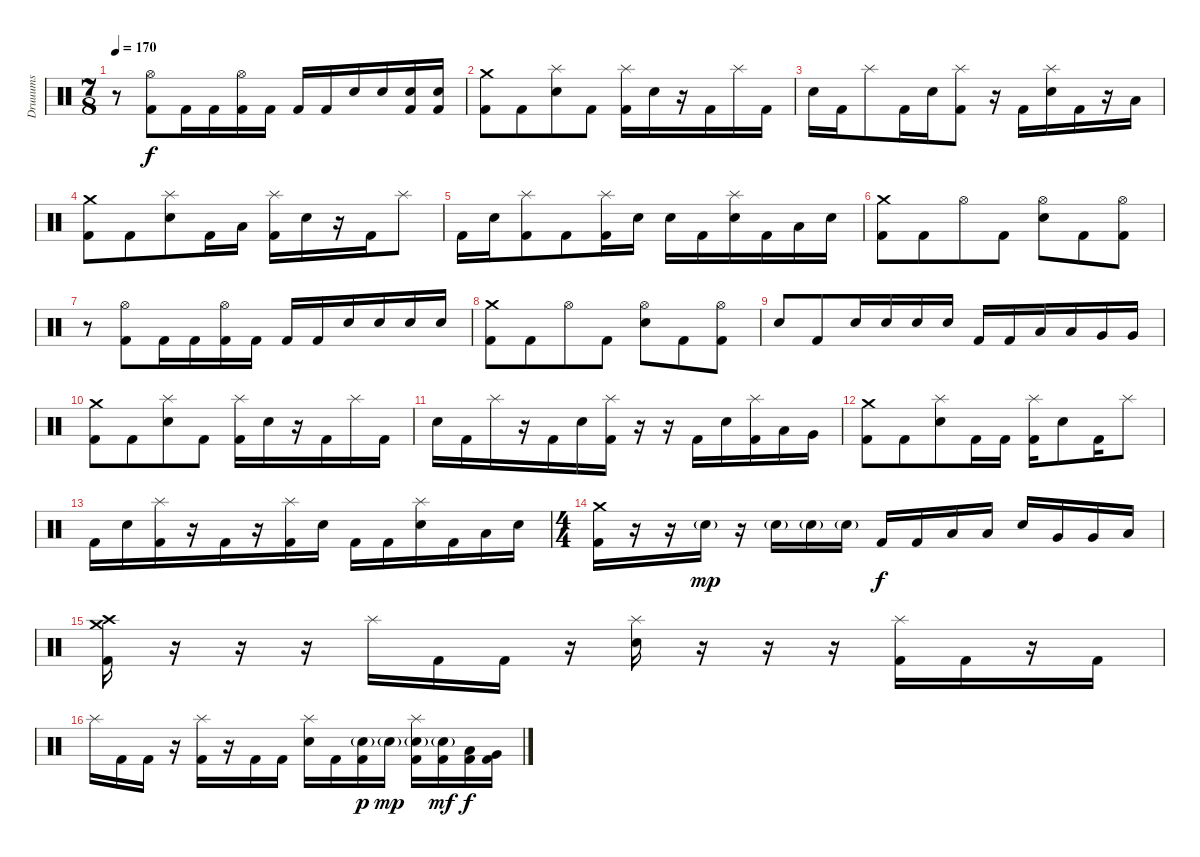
\track ("Druuums" "Druuums") {instrument percussion}
\staff {score}
\articulation defaults
\ts (7 8)
\tempo 170
\clef neutral
\ks c
r.8{dy f} ("Hi-Hat (open)" "Kick (hit) 2").8 "Kick (hit) 2".16 "Kick (hit) 2".16 ("Hi-Hat (open)" "Kick (hit) 2").16 "Kick (hit) 2".16 "Kick (hit) 2".16 "Kick (hit) 2".16 "Electric Snare (hit)".16 "Electric Snare (hit)".16 ("Electric Snare (hit)" "Kick (hit) 2").16 ("Electric Snare (hit)" "Kick (hit) 2").16 |
("Crash medium (hit)" "Kick (hit) 2").8 "Kick (hit) 2".8 ("Splash (hit)" "Electric Snare (hit)").8 "Kick (hit) 2".8 ("Splash (hit)" "Kick (hit) 2").16 "Electric Snare (hit)".16 r.16 "Kick (hit) 2".16 "Splash (hit)".16 "Kick (hit) 2".16 |
"Electric Snare (hit)".16 "Kick (hit) 2".16 "Splash (hit)".8 "Kick (hit) 2".16 "Electric Snare (hit)".16 ("Splash (hit)" "Kick (hit) 2").8 r.16 "Kick (hit) 2".16 ("Splash (hit)" "Electric Snare (hit)").16 "Kick (hit) 2".16 r.16 "Low Tom (hit)".16 |
("Crash medium (hit)" "Kick (hit) 2").8 "Kick (hit) 2".8 ("Splash (hit)" "Electric Snare (hit)").8 "Kick (hit) 2".16 "Low Tom (hit)".16 ("Splash (hit)" "Kick (hit) 2").16 "Electric Snare (hit)".16 r.16 "Kick (hit) 2".16 "Splash (hit)".8 |
"Kick (hit) 2".16 "Electric Snare (hit)".16 ("Splash (hit)" "Kick (hit) 2").8 "Kick (hit) 2".8 ("Splash (hit)" "Kick (hit) 2").16 "Electric Snare (hit)".16 "Electric Snare (hit)".16 "Kick (hit) 2".16 ("Splash (hit)" "Electric Snare (hit)").16 "Kick (hit) 2".16 "Low Tom (hit)".16 "Electric Snare (hit)".16 |
("Crash medium (hit)" "Kick (hit) 2").8 "Kick (hit) 2".8 "Hi-Hat (open)".8 "Kick (hit) 2".8 ("Hi-Hat (open)" "Electric Snare (hit)").8 "Kick (hit) 2".8 ("Hi-Hat (open)" "Kick (hit) 2").8 |
r.8 ("Hi-Hat (open)" "Kick (hit) 2").8 "Kick (hit) 2".16 "Kick (hit) 2".16 ("Hi-Hat (open)" "Kick (hit) 2").16 "Kick (hit) 2".16 "Kick (hit) 2".16 "Kick (hit) 2".16 "Electric Snare (hit)".16 "Electric Snare (hit)".16 "Electric Snare (hit)".16 "Electric Snare (hit)".16 |
("Crash medium (hit)" "Kick (hit) 2").8 "Kick (hit) 2".8 "Hi-Hat (open)".8 "Kick (hit) 2".8 ("Hi-Hat (open)" "Electric Snare (hit)").8 "Kick (hit) 2".8 ("Hi-Hat (open)" "Kick (hit) 2").8 |
"Electric Snare (hit)".8 "Kick (hit) 2".8 "Electric Snare (hit)".16 "Electric Snare (hit)".16 "Electric Snare (hit)".16 "Electric Snare (hit)".16 "Kick (hit) 2".16 "Kick (hit) 2".16 "Low Tom (hit)".16 "Low Tom (hit)".16 "Very Low Tom (hit)".16 "Very Low Tom (hit)".16 |
("Crash medium (hit)" "Kick (hit) 2").8 "Kick (hit) 2".8 ("Splash (hit)" "Electric Snare (hit)").8 "Kick (hit) 2".8 ("Splash (hit)" "Kick (hit) 2").16 "Electric Snare (hit)".16 r.16 "Kick (hit) 2".16 "Splash (hit)".16 "Kick (hit) 2".16 |
"Electric Snare (hit)".16 "Kick (hit) 2".16 "Splash (hit)".16 r.16 "Kick (hit) 2".16 "Electric Snare (hit)".16 ("Splash (hit)" "Kick (hit) 2").16 r.16 r.16 "Kick (hit) 2".16 "Electric Snare (hit)".16 ("Splash (hit)" "Kick (hit) 2").16 "Low Tom (hit)".16 "Very Low Tom (hit)".16 |
("Crash medium (hit)" "Kick (hit) 2").8 "Kick (hit) 2".8 ("Splash (hit)" "Electric Snare (hit)").8 "Kick (hit) 2".16 "Kick (hit) 2".16 ("Splash (hit)" "Kick (hit) 2").16 "Electric Snare (hit)".8 "Kick (hit) 2".16 "Splash (hit)".8 |
"Kick (hit) 2".16 "Electric Snare (hit)".16 ("Splash (hit)" "Kick (hit) 2").16 r.16 "Kick (hit) 2".16 r.16 ("Splash (hit)" "Kick (hit) 2").16 "Electric Snare (hit)".16 "Kick (hit) 2".16 "Kick (hit) 2".16 ("Splash (hit)" "Electric Snare (hit)").16 "Kick (hit) 2".16 "Low Tom (hit)".16 "Electric Snare (hit)".16 |
\ts (4 4)
("Crash medium (hit)" "Kick (hit) 2").16 r.16 r.16 "Electric Snare (hit)"{g}.16{dy mp} r.16 "Electric Snare (hit)"{g}.16 "Electric Snare (hit)"{g}.16 "Electric Snare (hit)"{g}.16 "Kick (hit) 2".16{dy f} "Kick (hit) 2".16 "Low Tom (hit)".16 "Low Tom (hit)".16 "Electric Snare (hit)".16 "Very Low Tom (hit)".16 "Very Low Tom (hit)".16 "Low Floor Tom (hit)".16 |
("Crash medium (hit)" "Crash high (hit)" "Kick (hit) 2").16 r.16 r.16 r.16 "Splash (hit)".16 "Kick (hit) 2".16 "Kick (hit) 2".16 r.16 ("Splash (hit)" "Electric Snare (hit)").16 r.16 r.16 r.16 ("Splash (hit)" "Kick (hit) 2").16 "Kick (hit) 2".16 r.16 "Kick (hit) 2".16 |
"Splash (hit)".16 "Kick (hit) 2".16 "Kick (hit) 2".16 r.16 ("Splash (hit)" "Kick (hit) 2").16 r.16 "Kick (hit) 2".16 "Kick (hit) 2".16 ("Splash (hit)" "Electric Snare (hit)").16 "Kick (hit) 2".16 ("Electric Snare (hit)"{g} "Kick (hit) 2").16{dy p} "Electric Snare (hit)"{g}.16{dy mp} ("Splash (hit)" "Electric Snare (hit)"{g} "Kick (hit) 2").16 ("Electric Snare (hit)"{g} "Kick (hit) 2").16{dy mf} ("Low Tom (hit)" "Kick (hit) 2").16{dy f} ("Very Low Tom (hit)" "Kick (hit) 2").16
